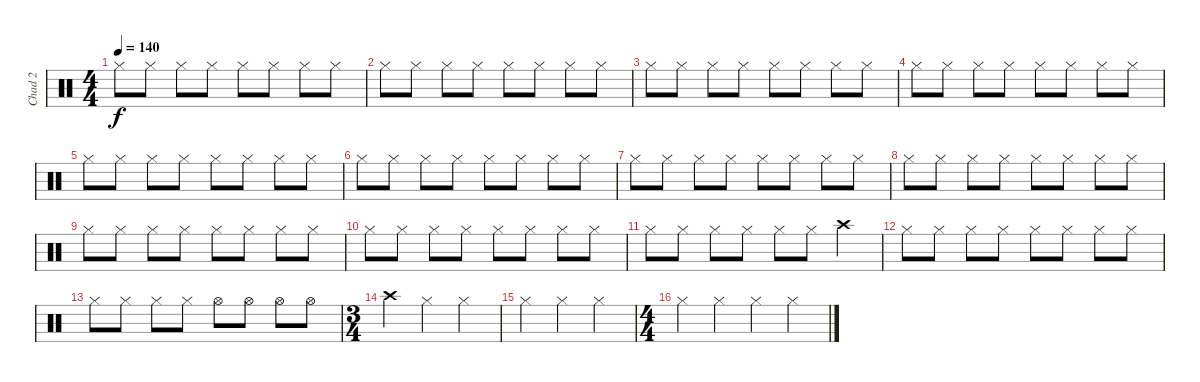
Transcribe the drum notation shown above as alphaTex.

\track ("Chad 2" "Chad 2") {instrument percussion}
\staff {score}
\articulation defaults
\ts (4 4)
\tempo 140
\clef neutral
\ks c "Hi-Hat (closed)".8{dy f} "Hi-Hat (closed)".8 "Hi-Hat (closed)".8 "Hi-Hat (closed)".8 "Hi-Hat (closed)".8 "Hi-Hat (closed)".8 "Hi-Hat (closed)".8 "Hi-Hat (closed)".8
|
"Hi-Hat (closed)".8 "Hi-Hat (closed)".8 "Hi-Hat (closed)".8 "Hi-Hat (closed)".8 "Hi-Hat (closed)".8 "Hi-Hat (closed)".8 "Hi-Hat (closed)".8 "Hi-Hat (closed)".8 |
"Hi-Hat (closed)".8 "Hi-Hat (closed)".8 "Hi-Hat (closed)".8 "Hi-Hat (closed)".8 "Hi-Hat (closed)".8 "Hi-Hat (closed)".8 "Hi-Hat (closed)".8 "Hi-Hat (closed)".8 |
"Hi-Hat (closed)".8 "Hi-Hat (closed)".8 "Hi-Hat (closed)".8 "Hi-Hat (closed)".8 "Hi-Hat (closed)".8 "Hi-Hat (closed)".8 "Hi-Hat (closed)".8 "Hi-Hat (closed)".8 |
"Hi-Hat (closed)".8 "Hi-Hat (closed)".8 "Hi-Hat (closed)".8 "Hi-Hat (closed)".8 "Hi-Hat (closed)".8 "Hi-Hat (closed)".8 "Hi-Hat (closed)".8 "Hi-Hat (closed)".8 |
"Hi-Hat (closed)".8 "Hi-Hat (closed)".8 "Hi-Hat (closed)".8 "Hi-Hat (closed)".8 "Hi-Hat (closed)".8 "Hi-Hat (closed)".8 "Hi-Hat (closed)".8 "Hi-Hat (closed)".8 |
"Hi-Hat (closed)".8 "Hi-Hat (closed)".8 "Hi-Hat (closed)".8 "Hi-Hat (closed)".8 "Hi-Hat (closed)".8 "Hi-Hat (closed)".8 "Hi-Hat (closed)".8 "Hi-Hat (closed)".8 |
"Hi-Hat (closed)".8 "Hi-Hat (closed)".8 "Hi-Hat (closed)".8 "Hi-Hat (closed)".8 "Hi-Hat (closed)".8 "Hi-Hat (closed)".8 "Hi-Hat (closed)".8 "Hi-Hat (closed)".8 |
"Hi-Hat (closed)".8 "Hi-Hat (closed)".8 "Hi-Hat (closed)".8 "Hi-Hat (closed)".8 "Hi-Hat (closed)".8 "Hi-Hat (closed)".8 "Hi-Hat (closed)".8 "Hi-Hat (closed)".8 |
"Hi-Hat (closed)".8 "Hi-Hat (closed)".8 "Hi-Hat (closed)".8 "Hi-Hat (closed)".8 "Hi-Hat (closed)".8 "Hi-Hat (closed)".8 "Hi-Hat (closed)".8 "Hi-Hat (closed)".8 |
"Hi-Hat (closed)".8 "Hi-Hat (closed)".8 "Hi-Hat (closed)".8 "Hi-Hat (closed)".8 "Hi-Hat (closed)".8 "Hi-Hat (closed)".8 "Crash high (hit)".4 |
"Hi-Hat (closed)".8 "Hi-Hat (closed)".8 "Hi-Hat (closed)".8 "Hi-Hat (closed)".8 "Hi-Hat (closed)".8 "Hi-Hat (closed)".8 "Hi-Hat (closed)".8 "Hi-Hat (closed)".8 |
"Hi-Hat (closed)".8 "Hi-Hat (closed)".8 "Hi-Hat (closed)".8 "Hi-Hat (closed)".8 "Hi-Hat (open)".8 "Hi-Hat (open)".8 "Hi-Hat (open)".8 "Hi-Hat (open)".8 |
\ts (3 4)
"Crash high (hit)".4 "Hi-Hat (closed)".4 "Hi-Hat (closed)".4 |
"Hi-Hat (closed)".4 "Hi-Hat (closed)".4 "Hi-Hat (closed)".4 |
\ts (4 4)
"Hi-Hat (closed)".4 "Hi-Hat (closed)".4 "Hi-Hat (closed)".4 "Hi-Hat (closed)".4
